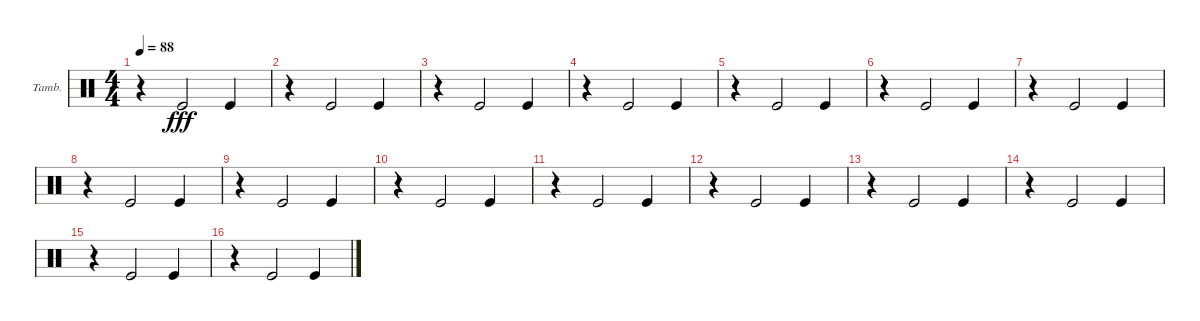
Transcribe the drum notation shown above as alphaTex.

\defaultSystemsLayout 4
\bracketExtendMode groupsimilarinstruments
\firstSystemTrackNameOrientation horizontal
\otherSystemsTrackNameOrientation horizontal
\track ("Helders" "Tamb.") {instrument percussion}
\staff {score}
\articulation defaults
\ts (4 4)
\tempo 88
\clef neutral
\scale
0.333333
\ks c
r.4{dy fff} "Kick (hit)".2 "Kick (hit)".4 |
\scale
0.333333 r.4 "Kick (hit)".2 "Kick (hit)".4 |
\scale
0.333333 r.4 "Kick (hit)".2 "Kick (hit)".4 |
\scale
0.333333 r.4 "Kick (hit)".2 "Kick (hit)".4 |
\scale
0.333333 r.4 "Kick (hit)".2 "Kick (hit)".4 |
\scale
0.333333 r.4 "Kick (hit)".2 "Kick (hit)".4 |
\scale
0.333333 r.4 "Kick (hit)".2 "Kick (hit)".4 |
\scale
0.333333 r.4 "Kick (hit)".2 "Kick (hit)".4 |
\scale
0.333333 r.4 "Kick (hit)".2 "Kick (hit)".4 |
\scale
0.333333 r.4 "Kick (hit)".2 "Kick (hit)".4 |
\scale
0.333333 r.4 "Kick (hit)".2 "Kick (hit)".4 |
\scale
0.333333 r.4 "Kick (hit)".2 "Kick (hit)".4 |
\scale
0.333333 r.4 "Kick (hit)".2 "Kick (hit)".4 |
\scale
0.333333 r.4 "Kick (hit)".2 "Kick (hit)".4 |
\scale
0.333333 r.4 "Kick (hit)".2 "Kick (hit)".4 |
\scale
0.333333 r.4 "Kick (hit)".2 "Kick (hit)".4
